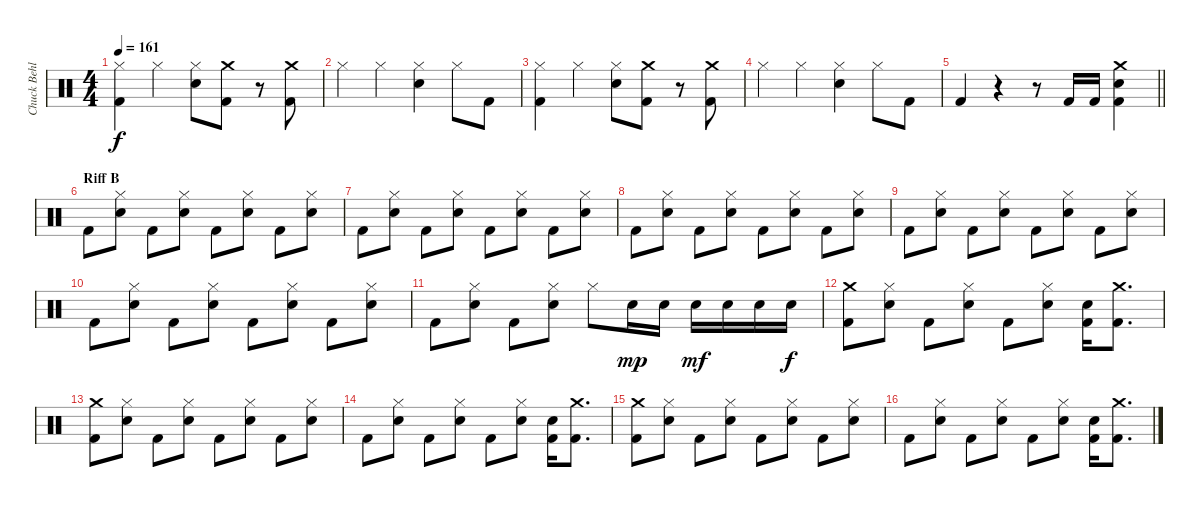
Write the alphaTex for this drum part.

\track ("Chuck Behler" "Chuck Behl") {instrument percussion}
\staff {score}
\articulation defaults
\ts (4 4)
\tempo 161
\clef neutral
\ks c
("Hi-Hat (closed)" "Kick (hit) 2").4{dy f} "Hi-Hat (closed)".4 ("Hi-Hat (closed)" "Snare (hit) 2").8 ("Crash medium (hit)" "Kick (hit) 2").8 r.8 ("Crash medium (hit)" "Kick (hit) 2").8 |
"Hi-Hat (closed)".4 "Hi-Hat (closed)".4 ("Hi-Hat (closed)" "Snare (hit) 2").4 "Hi-Hat (closed)".8 "Kick (hit) 2".8 |
("Hi-Hat (closed)" "Kick (hit) 2").4 "Hi-Hat (closed)".4 ("Hi-Hat (closed)" "Snare (hit) 2").8 ("Crash medium (hit)" "Kick (hit) 2").8 r.8 ("Crash medium (hit)" "Kick (hit) 2").8 |
"Hi-Hat (closed)".4 "Hi-Hat (closed)".4 ("Hi-Hat (closed)" "Snare (hit) 2").4 "Hi-Hat (closed)".8 "Kick (hit) 2".8 |
\barLineRight lightlight "Kick (hit) 2".4
r.4 r.8 "Kick (hit) 2".16 "Kick (hit) 2".16 ("Crash medium (hit)" "Snare (hit) 2" "Kick (hit) 2").4 |
\section ("" "Riff B")
"Kick (hit) 2".8 ("Hi-Hat (closed)" "Snare (hit) 2").8 "Kick (hit) 2".8 ("Hi-Hat (closed)" "Snare (hit) 2").8 "Kick (hit) 2".8 ("Hi-Hat (closed)" "Snare (hit) 2").8 "Kick (hit) 2".8 ("Hi-Hat (closed)" "Snare (hit) 2").8 |
"Kick (hit) 2".8 ("Hi-Hat (closed)" "Snare (hit) 2").8 "Kick (hit) 2".8 ("Hi-Hat (closed)" "Snare (hit) 2").8 "Kick (hit) 2".8 ("Hi-Hat (closed)" "Snare (hit) 2").8 "Kick (hit) 2".8 ("Hi-Hat (closed)" "Snare (hit) 2").8 |
"Kick (hit) 2".8 ("Hi-Hat (closed)" "Snare (hit) 2").8 "Kick (hit) 2".8 ("Hi-Hat (closed)" "Snare (hit) 2").8 "Kick (hit) 2".8 ("Hi-Hat (closed)" "Snare (hit) 2").8 "Kick (hit) 2".8 ("Hi-Hat (closed)" "Snare (hit) 2").8 |
"Kick (hit) 2".8 ("Hi-Hat (closed)" "Snare (hit) 2").8 "Kick (hit) 2".8 ("Hi-Hat (closed)" "Snare (hit) 2").8 "Kick (hit) 2".8 ("Hi-Hat (closed)" "Snare (hit) 2").8 "Kick (hit) 2".8 ("Hi-Hat (closed)" "Snare (hit) 2").8 |
"Kick (hit) 2".8 ("Hi-Hat (closed)" "Snare (hit) 2").8 "Kick (hit) 2".8 ("Hi-Hat (closed)" "Snare (hit) 2").8 "Kick (hit) 2".8 ("Hi-Hat (closed)" "Snare (hit) 2").8 "Kick (hit) 2".8 ("Hi-Hat (closed)" "Snare (hit) 2").8 |
"Kick (hit) 2".8 ("Hi-Hat (closed)" "Snare (hit) 2").8 "Kick (hit) 2".8 ("Hi-Hat (closed)" "Snare (hit) 2").8 "Hi-Hat (closed)".8 "Snare (hit) 2".16{dy mp} "Snare (hit) 2".16 "Snare (hit) 2".16{dy mf} "Snare (hit) 2".16 "Snare (hit) 2".16 "Snare (hit) 2".16{dy f} |
("Crash medium (hit)" "Kick (hit) 2").8 ("Hi-Hat (closed)" "Snare (hit) 2").8 "Kick (hit) 2".8 ("Hi-Hat (closed)" "Snare (hit) 2").8 "Kick (hit) 2".8 ("Hi-Hat (closed)" "Snare (hit) 2").8 ("Snare (hit) 2" "Kick (hit) 2").16 ("Crash medium (hit)" "Kick (hit) 2").8{d} |
("Crash medium (hit)" "Kick (hit) 2").8 ("Hi-Hat (closed)" "Snare (hit) 2").8 "Kick (hit) 2".8 ("Hi-Hat (closed)" "Snare (hit) 2").8 "Kick (hit) 2".8 ("Hi-Hat (closed)" "Snare (hit) 2").8 "Kick (hit) 2".8 ("Hi-Hat (closed)" "Snare (hit) 2").8 |
"Kick (hit) 2".8 ("Hi-Hat (closed)" "Snare (hit) 2").8 "Kick (hit) 2".8 ("Hi-Hat (closed)" "Snare (hit) 2").8 "Kick (hit) 2".8 ("Hi-Hat (closed)" "Snare (hit) 2").8 ("Snare (hit) 2" "Kick (hit) 2").16 ("Crash medium (hit)" "Kick (hit) 2").8{d} |
("Crash medium (hit)" "Kick (hit) 2").8 ("Hi-Hat (closed)" "Snare (hit) 2").8 "Kick (hit) 2".8 ("Hi-Hat (closed)" "Snare (hit) 2").8 "Kick (hit) 2".8 ("Hi-Hat (closed)" "Snare (hit) 2").8 "Kick (hit) 2".8 ("Hi-Hat (closed)" "Snare (hit) 2").8 |
"Kick (hit) 2".8 ("Hi-Hat (closed)" "Snare (hit) 2").8 "Kick (hit) 2".8 ("Hi-Hat (closed)" "Snare (hit) 2").8 "Kick (hit) 2".8 ("Hi-Hat (closed)" "Snare (hit) 2").8 ("Snare (hit) 2" "Kick (hit) 2").16 ("Crash medium (hit)" "Kick (hit) 2").8{d}
